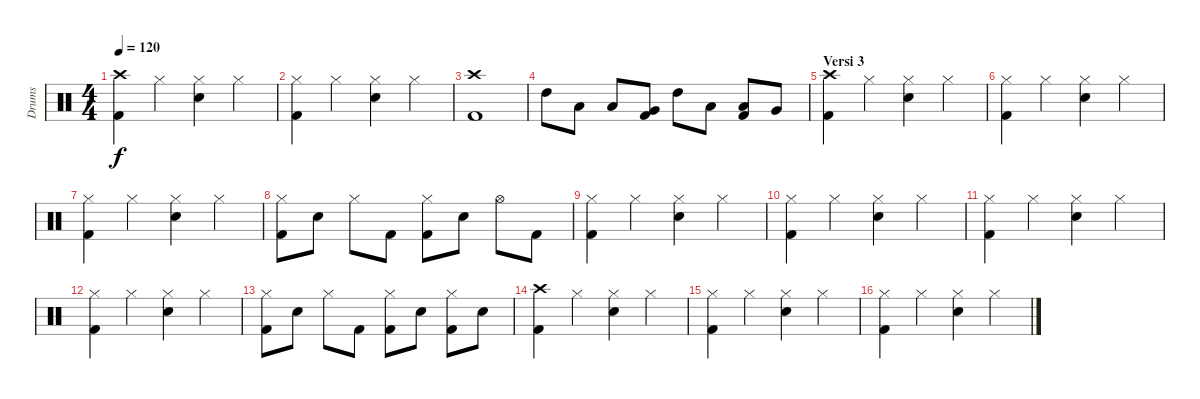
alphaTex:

\track ("Drums" "Drums") {instrument percussion}
\staff {score}
\articulation defaults
\ts (4 4)
\tempo 120
\clef neutral
\ks c
("Crash high (hit)" "Kick (hit) 2").4{dy f} "Hi-Hat (closed)".4 ("Hi-Hat (closed)" "Electric Snare (hit)").4 "Hi-Hat (closed)".4 |
("Hi-Hat (closed)" "Kick (hit) 2").4 "Hi-Hat (closed)".4 ("Hi-Hat (closed)" "Electric Snare (hit)").4 "Hi-Hat (closed)".4 |
("Crash high (hit)" "Kick (hit) 2").1 |
"High Tom (hit)".8 "Low Tom (hit)".8 "Low Tom (hit)".8 ("Very Low Tom (hit)" "Kick (hit) 2").8 "High Tom (hit)".8 "Low Tom (hit)".8 ("Low Tom (hit)" "Kick (hit) 2").8 "Very Low Tom (hit)".8 |
\section ("" "Versi 3")
("Crash high (hit)" "Kick (hit) 2").4 "Hi-Hat (closed)".4 ("Hi-Hat (closed)" "Electric Snare (hit)").4 "Hi-Hat (closed)".4 |
("Hi-Hat (closed)" "Kick (hit) 2").4 "Hi-Hat (closed)".4 ("Hi-Hat (closed)" "Electric Snare (hit)").4 "Hi-Hat (closed)".4 |
("Hi-Hat (closed)" "Kick (hit) 2").4 "Hi-Hat (closed)".4 ("Hi-Hat (closed)" "Electric Snare (hit)").4 "Hi-Hat (closed)".4 |
("Hi-Hat (closed)" "Kick (hit) 2").8 "Electric Snare (hit)".8 "Hi-Hat (closed)".8 "Kick (hit) 2".8 ("Hi-Hat (closed)" "Kick (hit) 2").8 "Electric Snare (hit)".8 "Hi-Hat (open)".8 "Kick (hit) 2".8 |
("Hi-Hat (closed)" "Kick (hit) 2").4 "Hi-Hat (closed)".4 ("Hi-Hat (closed)" "Electric Snare (hit)").4 "Hi-Hat (closed)".4 |
("Hi-Hat (closed)" "Kick (hit) 2").4 "Hi-Hat (closed)".4 ("Hi-Hat (closed)" "Electric Snare (hit)").4 "Hi-Hat (closed)".4 |
("Hi-Hat (closed)" "Kick (hit) 2").4 "Hi-Hat (closed)".4 ("Hi-Hat (closed)" "Electric Snare (hit)").4 "Hi-Hat (closed)".4 |
("Hi-Hat (closed)" "Kick (hit) 2").4 "Hi-Hat (closed)".4 ("Hi-Hat (closed)" "Electric Snare (hit)").4 "Hi-Hat (closed)".4 |
("Hi-Hat (closed)" "Kick (hit) 2").8 "Electric Snare (hit)".8 "Hi-Hat (closed)".8 "Kick (hit) 2".8 ("Hi-Hat (closed)" "Kick (hit) 2").8 "Electric Snare (hit)".8 ("Hi-Hat (closed)" "Kick (hit) 2").8 "Electric Snare (hit)".8 |
("Crash high (hit)" "Kick (hit) 2").4 "Hi-Hat (closed)".4 ("Hi-Hat (closed)" "Electric Snare (hit)").4 "Hi-Hat (closed)".4 |
("Hi-Hat (closed)" "Kick (hit) 2").4 "Hi-Hat (closed)".4 ("Hi-Hat (closed)" "Electric Snare (hit)").4 "Hi-Hat (closed)".4 |
("Hi-Hat (closed)" "Kick (hit) 2").4 "Hi-Hat (closed)".4 ("Hi-Hat (closed)" "Electric Snare (hit)").4 "Hi-Hat (closed)".4
